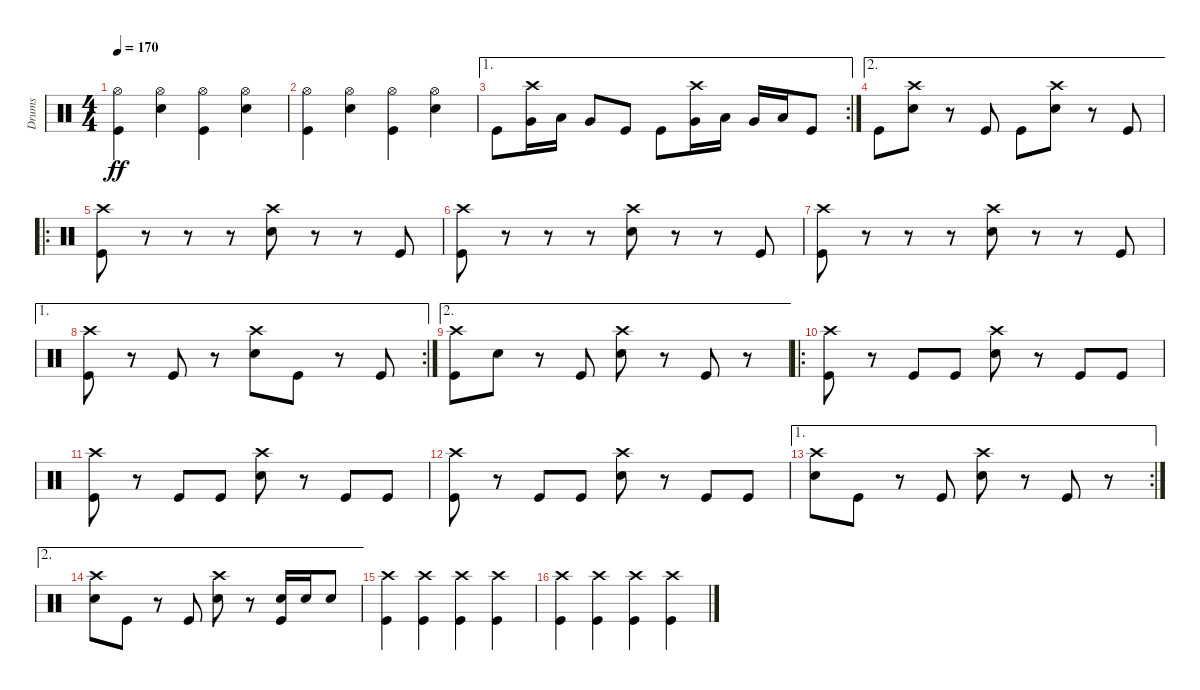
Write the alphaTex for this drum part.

\track ("Drums" "Drums") {instrument percussion}
\staff {score}
\articulation defaults
\ts (4 4)
\tempo 170
\clef neutral
\ks c
("Hi-Hat (open)" "Kick (hit)").4{dy ff} ("Hi-Hat (open)" "Snare (hit) 2").4 ("Hi-Hat (open)" "Kick (hit)").4 ("Hi-Hat (open)" "Snare (hit) 2").4 |
("Hi-Hat (open)" "Kick (hit)").4 ("Hi-Hat (open)" "Snare (hit) 2").4 ("Hi-Hat (open)" "Kick (hit)").4 ("Hi-Hat (open)" "Snare (hit) 2").4 |
\ae 1
\rc 2 "Kick (hit)".8
("Crash high (hit)" "Very Low Tom (hit)").16 "Low Floor Tom (hit)".16 "Very Low Tom (hit)".8 "Kick (hit)".8 "Kick (hit)".8 ("Crash high (hit)" "Very Low Tom (hit)").16 "Low Floor Tom (hit)".16 "Very Low Tom (hit)".16 "Low Floor Tom (hit)".16 "Kick (hit)".8 |
\ae 2 "Kick (hit)".8
("Crash high (hit)" "Snare (hit) 2").8 r.8 "Kick (hit)".8 "Kick (hit)".8 ("Crash high (hit)" "Snare (hit) 2").8 r.8 "Kick (hit)".8 |
\ro
("Crash high (hit)" "Kick (hit)").8 r.8 r.8 r.8 ("Crash high (hit)" "Snare (hit) 2").8 r.8 r.8 "Kick (hit)".8 |
("Crash high (hit)" "Kick (hit)").8 r.8 r.8 r.8 ("Crash high (hit)" "Snare (hit) 2").8 r.8 r.8 "Kick (hit)".8 |
("Crash high (hit)" "Kick (hit)").8 r.8 r.8 r.8 ("Crash high (hit)" "Snare (hit) 2").8 r.8 r.8 "Kick (hit)".8 |
\ae 1
\rc 2
("Crash high (hit)" "Kick (hit)").8 r.8 "Kick (hit)".8 r.8 ("Crash high (hit)" "Snare (hit) 2").8 "Kick (hit)".8 r.8 "Kick (hit)".8 |
\ae 2
("Crash high (hit)" "Kick (hit)").8 "Snare (hit) 2".8 r.8 "Kick (hit)".8 ("Crash high (hit)" "Snare (hit) 2").8 r.8 "Kick (hit)".8 r.8 |
\ro
("Crash high (hit)" "Kick (hit)").8 r.8 "Kick (hit)".8 "Kick (hit)".8 ("Crash high (hit)" "Snare (hit) 2").8 r.8 "Kick (hit)".8 "Kick (hit)".8 |
("Crash high (hit)" "Kick (hit)").8 r.8 "Kick (hit)".8 "Kick (hit)".8 ("Crash high (hit)" "Snare (hit) 2").8 r.8 "Kick (hit)".8 "Kick (hit)".8 |
("Crash high (hit)" "Kick (hit)").8 r.8 "Kick (hit)".8 "Kick (hit)".8 ("Crash high (hit)" "Snare (hit) 2").8 r.8 "Kick (hit)".8 "Kick (hit)".8 |
\ae 1
\rc 2
("Crash high (hit)" "Snare (hit) 2").8 "Kick (hit)".8 r.8 "Kick (hit)".8 ("Crash high (hit)" "Snare (hit) 2").8 r.8 "Kick (hit)".8 r.8 |
\ae 2
("Crash high (hit)" "Snare (hit) 2").8 "Kick (hit)".8 r.8 "Kick (hit)".8 ("Crash high (hit)" "Snare (hit) 2").8 r.8 ("Snare (hit) 2" "Kick (hit)").16 "Snare (hit) 2".16 "Snare (hit) 2".8 |
("Crash high (hit)" "Kick (hit)").4 ("Crash high (hit)" "Kick (hit)").4 ("Crash high (hit)" "Kick (hit)").4 ("Crash high (hit)" "Kick (hit)").4 |
("Crash high (hit)" "Kick (hit)").4 ("Crash high (hit)" "Kick (hit)").4 ("Crash high (hit)" "Kick (hit)").4 ("Crash high (hit)" "Kick (hit)").4
